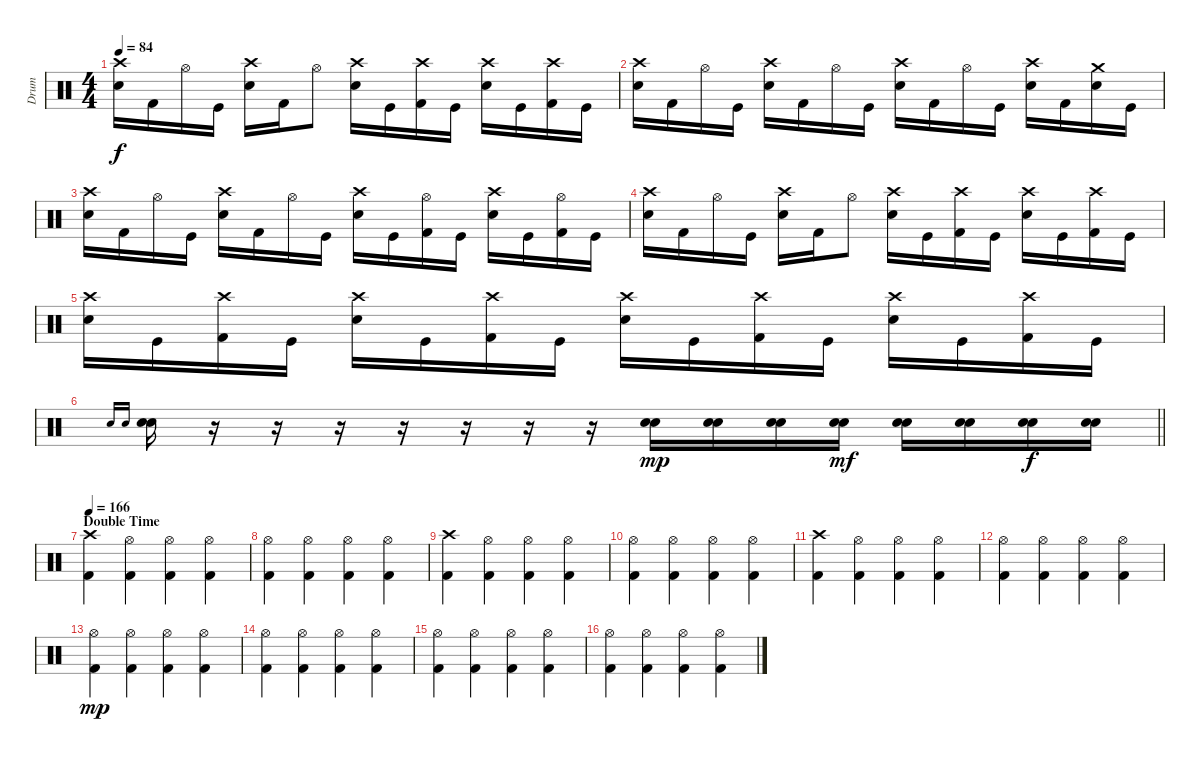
\track ("Drum" "Drum") {instrument percussion}
\staff {score}
\articulation defaults
\ts (4 4)
\tempo 84
\clef neutral
\ks c
("Crash high (hit)" "Snare (hit) 2").16{dy f} "Kick (hit) 2".16 "Hi-Hat (open)".16 "Kick (hit)".16 ("Crash high (hit)" "Snare (hit) 2").16 "Kick (hit) 2".16 "Hi-Hat (open)".8 ("Crash high (hit)" "Snare (hit) 2").16 "Kick (hit)".16 ("Crash high (hit)" "Kick (hit) 2").16 "Kick (hit)".16 ("Crash high (hit)" "Snare (hit) 2").16 "Kick (hit)".16 ("Crash high (hit)" "Kick (hit) 2").16 "Kick (hit)".16 |
("Crash high (hit)" "Snare (hit) 2").16 "Kick (hit) 2".16 "Hi-Hat (open)".16 "Kick (hit)".16 ("Crash high (hit)" "Snare (hit) 2").16 "Kick (hit) 2".16 "Hi-Hat (open)".16 "Kick (hit)".16 ("Crash high (hit)" "Snare (hit) 2").16 "Kick (hit) 2".16 "Hi-Hat (open)".16 "Kick (hit)".16 ("Crash high (hit)" "Snare (hit) 2").16 "Kick (hit) 2".16 ("Crash medium (hit)" "Snare (hit) 2").16 "Kick (hit)".16 |
("Crash high (hit)" "Snare (hit) 2").16 "Kick (hit) 2".16 "Hi-Hat (open)".16 "Kick (hit)".16 ("Crash high (hit)" "Snare (hit) 2").16 "Kick (hit) 2".16 "Hi-Hat (open)".16 "Kick (hit)".16 ("Crash high (hit)" "Snare (hit) 2").16 "Kick (hit)".16 ("Hi-Hat (open)" "Kick (hit) 2").16 "Kick (hit)".16 ("Crash high (hit)" "Snare (hit) 2").16 "Kick (hit)".16 ("Hi-Hat (open)" "Kick (hit) 2").16 "Kick (hit)".16 |
("Crash high (hit)" "Snare (hit) 2").16 "Kick (hit) 2".16 "Hi-Hat (open)".16 "Kick (hit)".16 ("Crash high (hit)" "Snare (hit) 2").16 "Kick (hit) 2".16 "Hi-Hat (open)".8 ("Crash high (hit)" "Snare (hit) 2").16 "Kick (hit)".16 ("Crash high (hit)" "Kick (hit) 2").16 "Kick (hit)".16 ("Crash high (hit)" "Snare (hit) 2").16 "Kick (hit)".16 ("Crash high (hit)" "Kick (hit) 2").16 "Kick (hit)".16 |
("Crash high (hit)" "Snare (hit) 2").16 "Kick (hit)".16 ("Crash high (hit)" "Kick (hit) 2").16 "Kick (hit)".16 ("Crash high (hit)" "Snare (hit) 2").16 "Kick (hit)".16 ("Crash high (hit)" "Kick (hit) 2").16 "Kick (hit)".16 ("Crash high (hit)" "Snare (hit) 2").16 "Kick (hit)".16 ("Crash high (hit)" "Kick (hit) 2").16 "Kick (hit)".16 ("Crash high (hit)" "Snare (hit) 2").16 "Kick (hit)".16 ("Crash high (hit)" "Kick (hit) 2").16 "Kick (hit)".16 |
\barLineRight lightlight "Electric Snare (hit)".16{gr onbeat} "Snare (hit) 2".16{gr onbeat}
("Electric Snare (hit)" "Snare (hit) 2").16 r.16 r.16 r.16 r.16 r.16 r.16 r.16 ("Electric Snare (hit)" "Snare (hit) 2").16{dy mp} ("Electric Snare (hit)" "Snare (hit) 2").16 ("Electric Snare (hit)" "Snare (hit) 2").16 ("Electric Snare (hit)" "Snare (hit) 2").16{dy mf} ("Electric Snare (hit)" "Snare (hit) 2").16 ("Electric Snare (hit)" "Snare (hit) 2").16 ("Electric Snare (hit)" "Snare (hit) 2").16{dy f} ("Electric Snare (hit)" "Snare (hit) 2").16 |
\section ("" "Double Time")
\tempo 166
("Crash high (hit)" "Kick (hit) 2").4 ("Hi-Hat (open)" "Kick (hit) 2").4 ("Hi-Hat (open)" "Kick (hit) 2").4 ("Hi-Hat (open)" "Kick (hit) 2").4 |
("Hi-Hat (open)" "Kick (hit) 2").4 ("Hi-Hat (open)" "Kick (hit) 2").4 ("Hi-Hat (open)" "Kick (hit) 2").4 ("Hi-Hat (open)" "Kick (hit) 2").4 |
("Crash high (hit)" "Kick (hit) 2").4 ("Hi-Hat (open)" "Kick (hit) 2").4 ("Hi-Hat (open)" "Kick (hit) 2").4 ("Hi-Hat (open)" "Kick (hit) 2").4 |
("Hi-Hat (open)" "Kick (hit) 2").4 ("Hi-Hat (open)" "Kick (hit) 2").4 ("Hi-Hat (open)" "Kick (hit) 2").4 ("Hi-Hat (open)" "Kick (hit) 2").4 |
("Crash high (hit)" "Kick (hit) 2").4 ("Hi-Hat (open)" "Kick (hit) 2").4 ("Hi-Hat (open)" "Kick (hit) 2").4 ("Hi-Hat (open)" "Kick (hit) 2").4 |
("Hi-Hat (open)" "Kick (hit) 2").4 ("Hi-Hat (open)" "Kick (hit) 2").4 ("Hi-Hat (open)" "Kick (hit) 2").4 ("Hi-Hat (open)" "Kick (hit) 2").4 |
("Hi-Hat (open)" "Kick (hit) 2").4{dy mp} ("Hi-Hat (open)" "Kick (hit) 2").4 ("Hi-Hat (open)" "Kick (hit) 2").4 ("Hi-Hat (open)" "Kick (hit) 2").4 |
("Hi-Hat (open)" "Kick (hit) 2").4 ("Hi-Hat (open)" "Kick (hit) 2").4 ("Hi-Hat (open)" "Kick (hit) 2").4 ("Hi-Hat (open)" "Kick (hit) 2").4 |
("Hi-Hat (open)" "Kick (hit) 2").4 ("Hi-Hat (open)" "Kick (hit) 2").4 ("Hi-Hat (open)" "Kick (hit) 2").4 ("Hi-Hat (open)" "Kick (hit) 2").4 |
("Hi-Hat (open)" "Kick (hit) 2").4 ("Hi-Hat (open)" "Kick (hit) 2").4 ("Hi-Hat (open)" "Kick (hit) 2").4 ("Hi-Hat (open)" "Kick (hit) 2").4
